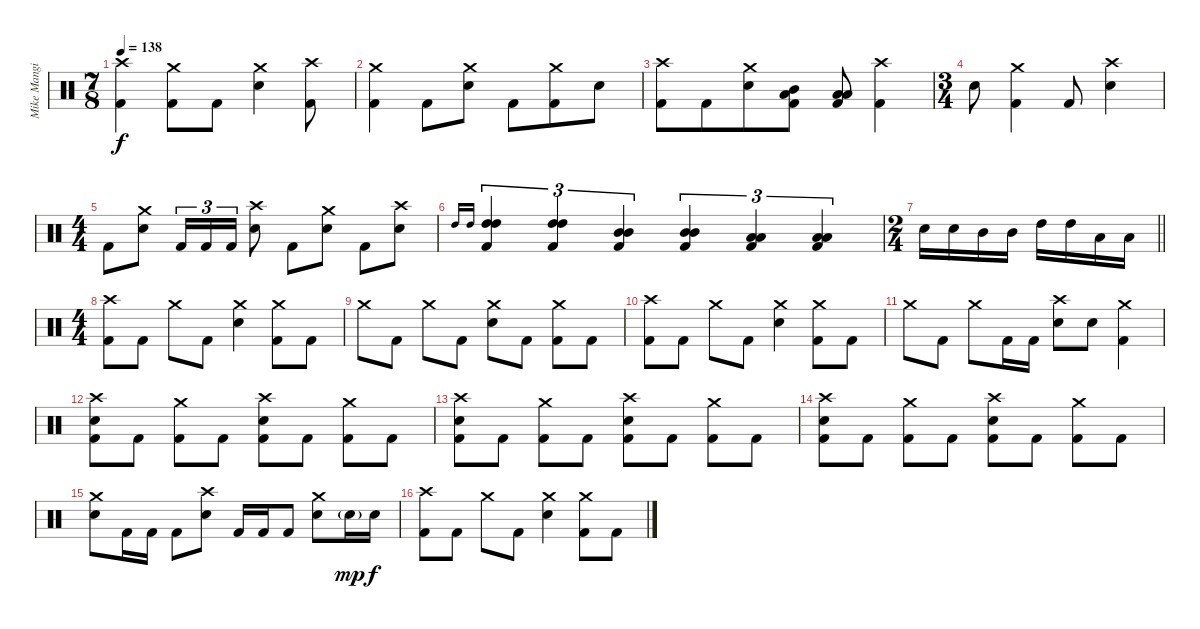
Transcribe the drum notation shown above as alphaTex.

\track ("Mike Mangini" "Mike Mangi") {instrument percussion}
\staff {score}
\articulation defaults
\ts (7 8)
\tempo 138
\clef neutral
\ks c
("Crash high (hit)" "Kick (hit) 2").4{dy f} ("Crash medium (hit)" "Kick (hit) 2").8 "Kick (hit) 2".8 ("Crash medium (hit)" "Electric Snare (hit)").4 ("Crash high (hit)" "Kick (hit) 2").8 |
("Crash medium (hit)" "Kick (hit) 2").4 "Kick (hit) 2".8 ("Crash medium (hit)" "Electric Snare (hit)").8 "Kick (hit) 2".8 ("Crash medium (hit)" "Kick (hit) 2").8 "Electric Snare (hit)".8 |
("Crash high (hit)" "Kick (hit) 2").8 "Kick (hit) 2".8 ("Crash medium (hit)" "Electric Snare (hit)").8 ("Mid Tom (hit)" "Low Tom (hit)" "Kick (hit) 2").8 ("Low Tom (hit)" "Low Tom (hit)" "Kick (hit) 2").8 ("Crash high (hit)" "Kick (hit) 2").4 |
\ts (3 4)
"Electric Snare (hit)".8 ("Crash medium (hit)" "Kick (hit) 2").4 "Kick (hit) 2".8 ("Crash high (hit)" "Electric Snare (hit)").4 |
\ts (4 4)
"Kick (hit) 2".8 ("Crash medium (hit)" "Electric Snare (hit)").8 "Kick (hit) 2".16{tu (3 2)} "Kick (hit) 2".16{tu (3 2)} "Kick (hit) 2".16{tu (3 2)} ("Crash high (hit)" "Electric Snare (hit)").8 "Kick (hit) 2".8 ("Crash medium (hit)" "Electric Snare (hit)").8 "Kick (hit) 2".8 ("Crash high (hit)" "Electric Snare (hit)").8 |
"High Tom (hit)".16{gr onbeat} "High Tom (hit)".16{gr onbeat} ("High Tom (hit)" "High Tom (hit)" "Kick (hit) 2").4{tu (3 2)} ("High Tom (hit)" "High Tom (hit)" "Kick (hit) 2").4{tu (3 2)} ("Mid Tom (hit)" "Mid Tom (hit)" "Kick (hit) 2").4{tu (3 2)} ("Mid Tom (hit)" "Mid Tom (hit)" "Kick (hit) 2").4{tu (3 2)} ("Low Tom (hit)" "Low Tom (hit)" "Kick (hit) 2").4{tu (3 2)} ("Low Tom (hit)" "Low Tom (hit)" "Kick (hit) 2").4{tu (3 2)} |
\ts (2 4)
\barLineRight lightlight "Electric Snare (hit)".16 "Electric Snare (hit)".16 "Mid Tom (hit)".16 "Mid Tom (hit)".16 "High Tom (hit)".16 "High Tom (hit)".16 "Low Tom (hit)".16 "Low Tom (hit)".16
|
\ts (4 4)
("Crash high (hit)" "Kick (hit) 2").8 "Kick (hit) 2".8 "Crash medium (hit)".8 "Kick (hit) 2".8 ("Crash medium (hit)" "Electric Snare (hit)").4 ("Crash medium (hit)" "Kick (hit) 2").8 "Kick (hit) 2".8 |
"Crash medium (hit)".8 "Kick (hit) 2".8 "Crash medium (hit)".8 "Kick (hit) 2".8 ("Crash medium (hit)" "Electric Snare (hit)").8 "Kick (hit) 2".8 ("Crash medium (hit)" "Kick (hit) 2").8 "Kick (hit) 2".8 |
("Crash high (hit)" "Kick (hit) 2").8 "Kick (hit) 2".8 "Crash medium (hit)".8 "Kick (hit) 2".8 ("Crash medium (hit)" "Electric Snare (hit)").4 ("Crash medium (hit)" "Kick (hit) 2").8 "Kick (hit) 2".8 |
"Crash medium (hit)".8 "Kick (hit) 2".8 "Crash medium (hit)".8 "Kick (hit) 2".16 "Kick (hit) 2".16 ("Crash high (hit)" "Electric Snare (hit)").8 "Electric Snare (hit)".8 ("Crash medium (hit)" "Kick (hit) 2").4 |
("Crash high (hit)" "Electric Snare (hit)" "Kick (hit) 2").8 "Kick (hit) 2".8 ("Crash medium (hit)" "Kick (hit) 2").8 "Kick (hit) 2".8 ("Crash high (hit)" "Electric Snare (hit)" "Kick (hit) 2").8 "Kick (hit) 2".8 ("Crash medium (hit)" "Kick (hit) 2").8 "Kick (hit) 2".8 |
("Crash high (hit)" "Electric Snare (hit)" "Kick (hit) 2").8 "Kick (hit) 2".8 ("Crash medium (hit)" "Kick (hit) 2").8 "Kick (hit) 2".8 ("Crash high (hit)" "Electric Snare (hit)" "Kick (hit) 2").8 "Kick (hit) 2".8 ("Crash medium (hit)" "Kick (hit) 2").8 "Kick (hit) 2".8 |
("Crash high (hit)" "Electric Snare (hit)" "Kick (hit) 2").8 "Kick (hit) 2".8 ("Crash medium (hit)" "Kick (hit) 2").8 "Kick (hit) 2".8 ("Crash high (hit)" "Electric Snare (hit)" "Kick (hit) 2").8 "Kick (hit) 2".8 ("Crash medium (hit)" "Kick (hit) 2").8 "Kick (hit) 2".8 |
("Crash medium (hit)" "Electric Snare (hit)").8 "Kick (hit) 2".16 "Kick (hit) 2".16 "Kick (hit) 2".8 ("Crash high (hit)" "Electric Snare (hit)").8 "Kick (hit) 2".16 "Kick (hit) 2".16 "Kick (hit) 2".8 ("Crash medium (hit)" "Electric Snare (hit)").8 "Electric Snare (hit)"{g}.16{dy mp} "Electric Snare (hit)".16{dy f} |
("Crash high (hit)" "Kick (hit) 2").8 "Kick (hit) 2".8 "Crash medium (hit)".8 "Kick (hit) 2".8 ("Crash medium (hit)" "Electric Snare (hit)").4 ("Crash medium (hit)" "Kick (hit) 2").8 "Kick (hit) 2".8
